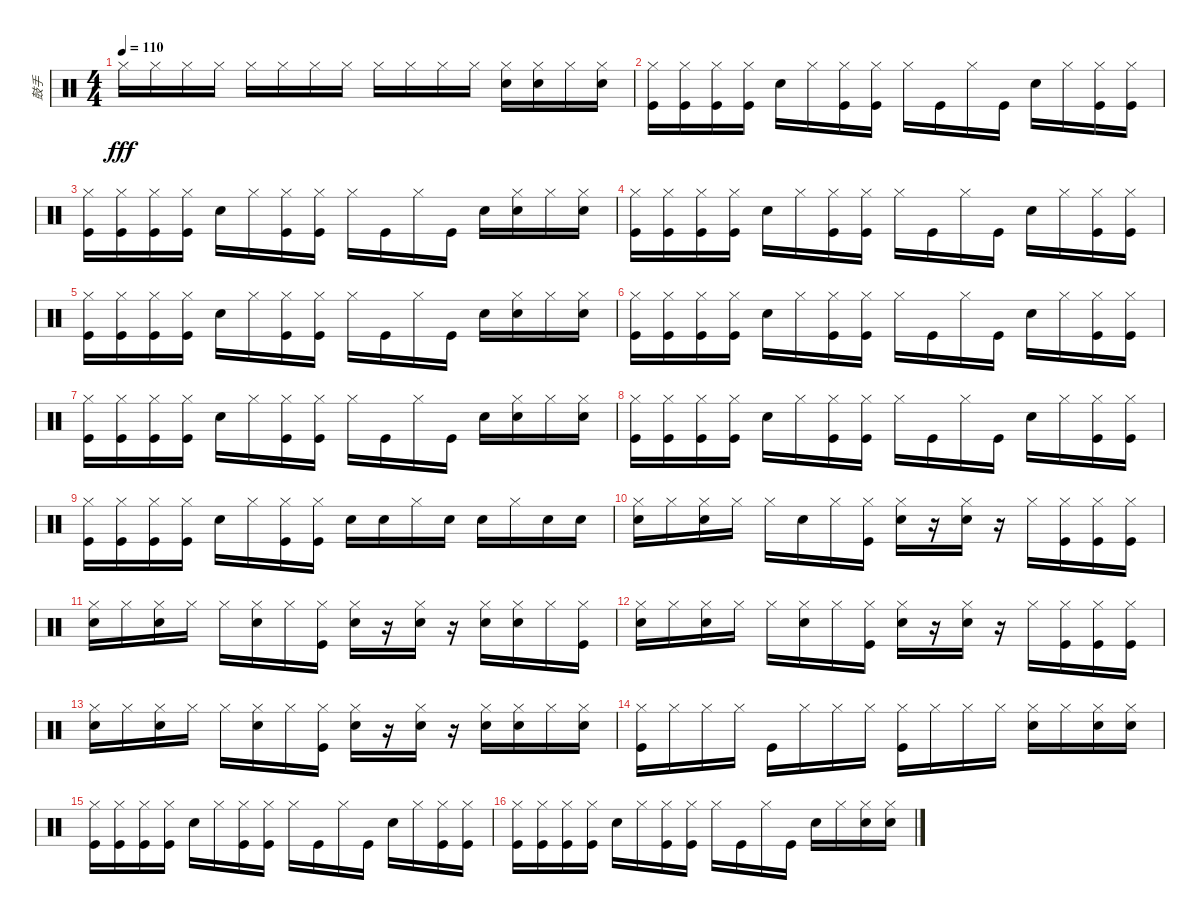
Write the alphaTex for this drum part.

\track ("鼓手" "鼓手") {instrument percussion}
\staff {score}
\articulation defaults
\ts (4 4)
\tempo 110
\clef neutral
\ks c "Hi-Hat (closed)".16{dy fff} "Hi-Hat (closed)".16 "Hi-Hat (closed)".16 "Hi-Hat (closed)".16 "Hi-Hat (closed)".16 "Hi-Hat (closed)".16 "Hi-Hat (closed)".16 "Hi-Hat (closed)".16 "Hi-Hat (closed)".16 "Hi-Hat (closed)".16 "Hi-Hat (closed)".16 "Hi-Hat (closed)".16
("Snare (hit) 2" "Hi-Hat (closed)").16 ("Snare (hit) 2" "Hi-Hat (closed)").16 "Hi-Hat (closed)".16 ("Snare (hit) 2" "Hi-Hat (closed)").16 |
("Kick (hit)" "Hi-Hat (closed)").16 ("Kick (hit)" "Hi-Hat (closed)").16 ("Kick (hit)" "Hi-Hat (closed)").16 ("Kick (hit)" "Hi-Hat (closed)").16 "Snare (hit) 2".16 "Hi-Hat (closed)".16 ("Kick (hit)" "Hi-Hat (closed)").16 ("Kick (hit)" "Hi-Hat (closed)").16 "Hi-Hat (closed)".16 "Kick (hit)".16 "Hi-Hat (closed)".16 "Kick (hit)".16 "Snare (hit) 2".16 "Hi-Hat (closed)".16 ("Kick (hit)" "Hi-Hat (closed)").16 ("Kick (hit)" "Hi-Hat (closed)").16 |
("Kick (hit)" "Hi-Hat (closed)").16 ("Kick (hit)" "Hi-Hat (closed)").16 ("Kick (hit)" "Hi-Hat (closed)").16 ("Kick (hit)" "Hi-Hat (closed)").16 "Snare (hit) 2".16 "Hi-Hat (closed)".16 ("Kick (hit)" "Hi-Hat (closed)").16 ("Kick (hit)" "Hi-Hat (closed)").16 "Hi-Hat (closed)".16 "Kick (hit)".16 "Hi-Hat (closed)".16 "Kick (hit)".16 "Snare (hit) 2".16 ("Snare (hit) 2" "Hi-Hat (closed)").16 "Hi-Hat (closed)".16 ("Snare (hit) 2" "Hi-Hat (closed)").16 |
("Kick (hit)" "Hi-Hat (closed)").16 ("Kick (hit)" "Hi-Hat (closed)").16 ("Kick (hit)" "Hi-Hat (closed)").16 ("Kick (hit)" "Hi-Hat (closed)").16 "Snare (hit) 2".16 "Hi-Hat (closed)".16 ("Kick (hit)" "Hi-Hat (closed)").16 ("Kick (hit)" "Hi-Hat (closed)").16 "Hi-Hat (closed)".16 "Kick (hit)".16 "Hi-Hat (closed)".16 "Kick (hit)".16 "Snare (hit) 2".16 "Hi-Hat (closed)".16 ("Kick (hit)" "Hi-Hat (closed)").16 ("Kick (hit)" "Hi-Hat (closed)").16 |
("Kick (hit)" "Hi-Hat (closed)").16 ("Kick (hit)" "Hi-Hat (closed)").16 ("Kick (hit)" "Hi-Hat (closed)").16 ("Kick (hit)" "Hi-Hat (closed)").16 "Snare (hit) 2".16 "Hi-Hat (closed)".16 ("Kick (hit)" "Hi-Hat (closed)").16 ("Kick (hit)" "Hi-Hat (closed)").16 "Hi-Hat (closed)".16 "Kick (hit)".16 "Hi-Hat (closed)".16 "Kick (hit)".16 "Snare (hit) 2".16 ("Snare (hit) 2" "Hi-Hat (closed)").16 "Hi-Hat (closed)".16 ("Snare (hit) 2" "Hi-Hat (closed)").16 |
("Kick (hit)" "Hi-Hat (closed)").16 ("Kick (hit)" "Hi-Hat (closed)").16 ("Kick (hit)" "Hi-Hat (closed)").16 ("Kick (hit)" "Hi-Hat (closed)").16 "Snare (hit) 2".16 "Hi-Hat (closed)".16 ("Kick (hit)" "Hi-Hat (closed)").16 ("Kick (hit)" "Hi-Hat (closed)").16 "Hi-Hat (closed)".16 "Kick (hit)".16 "Hi-Hat (closed)".16 "Kick (hit)".16 "Snare (hit) 2".16 "Hi-Hat (closed)".16 ("Kick (hit)" "Hi-Hat (closed)").16 ("Kick (hit)" "Hi-Hat (closed)").16 |
("Kick (hit)" "Hi-Hat (closed)").16 ("Kick (hit)" "Hi-Hat (closed)").16 ("Kick (hit)" "Hi-Hat (closed)").16 ("Kick (hit)" "Hi-Hat (closed)").16 "Snare (hit) 2".16 "Hi-Hat (closed)".16 ("Kick (hit)" "Hi-Hat (closed)").16 ("Kick (hit)" "Hi-Hat (closed)").16 "Hi-Hat (closed)".16 "Kick (hit)".16 "Hi-Hat (closed)".16 "Kick (hit)".16 "Snare (hit) 2".16 ("Snare (hit) 2" "Hi-Hat (closed)").16 "Hi-Hat (closed)".16 ("Snare (hit) 2" "Hi-Hat (closed)").16 |
("Kick (hit)" "Hi-Hat (closed)").16 ("Kick (hit)" "Hi-Hat (closed)").16 ("Kick (hit)" "Hi-Hat (closed)").16 ("Kick (hit)" "Hi-Hat (closed)").16 "Snare (hit) 2".16 "Hi-Hat (closed)".16 ("Kick (hit)" "Hi-Hat (closed)").16 ("Kick (hit)" "Hi-Hat (closed)").16 "Hi-Hat (closed)".16 "Kick (hit)".16 "Hi-Hat (closed)".16 "Kick (hit)".16 "Snare (hit) 2".16 "Hi-Hat (closed)".16 ("Kick (hit)" "Hi-Hat (closed)").16 ("Kick (hit)" "Hi-Hat (closed)").16 |
("Kick (hit)" "Hi-Hat (closed)").16 ("Kick (hit)" "Hi-Hat (closed)").16 ("Kick (hit)" "Hi-Hat (closed)").16 ("Kick (hit)" "Hi-Hat (closed)").16 "Snare (hit) 2".16 "Hi-Hat (closed)".16 ("Kick (hit)" "Hi-Hat (closed)").16 ("Kick (hit)" "Hi-Hat (closed)").16 "Snare (hit) 2".16 "Snare (hit) 2".16 "Hi-Hat (closed)".16 "Snare (hit) 2".16 "Snare (hit) 2".16 "Hi-Hat (closed)".16 "Snare (hit) 2".16 "Snare (hit) 2".16 |
("Snare (hit) 2" "Hi-Hat (closed)").16 "Hi-Hat (closed)".16 ("Snare (hit) 2" "Hi-Hat (closed)").16 "Hi-Hat (closed)".16 "Hi-Hat (closed)".16 "Snare (hit) 2".16 "Hi-Hat (closed)".16 ("Kick (hit)" "Hi-Hat (closed)").16 ("Snare (hit) 2" "Hi-Hat (closed)").16 r.16 ("Snare (hit) 2" "Hi-Hat (closed)").16 r.16 "Hi-Hat (closed)".16 ("Kick (hit)" "Hi-Hat (closed)").16 ("Kick (hit)" "Hi-Hat (closed)").16 ("Kick (hit)" "Hi-Hat (closed)").16 |
("Snare (hit) 2" "Hi-Hat (closed)").16 "Hi-Hat (closed)".16 ("Snare (hit) 2" "Hi-Hat (closed)").16 "Hi-Hat (closed)".16 "Hi-Hat (closed)".16 ("Snare (hit) 2" "Hi-Hat (closed)").16 "Hi-Hat (closed)".16 ("Kick (hit)" "Hi-Hat (closed)").16 ("Snare (hit) 2" "Hi-Hat (closed)").16 r.16 ("Snare (hit) 2" "Hi-Hat (closed)").16 r.16 ("Snare (hit) 2" "Hi-Hat (closed)").16 ("Snare (hit) 2" "Hi-Hat (closed)").16 "Hi-Hat (closed)".16 ("Kick (hit)" "Hi-Hat (closed)").16 |
("Snare (hit) 2" "Hi-Hat (closed)").16 "Hi-Hat (closed)".16 ("Snare (hit) 2" "Hi-Hat (closed)").16 "Hi-Hat (closed)".16 "Hi-Hat (closed)".16 ("Snare (hit) 2" "Hi-Hat (closed)").16 "Hi-Hat (closed)".16 ("Kick (hit)" "Hi-Hat (closed)").16 ("Snare (hit) 2" "Hi-Hat (closed)").16 r.16 ("Snare (hit) 2" "Hi-Hat (closed)").16 r.16 "Hi-Hat (closed)".16 ("Kick (hit)" "Hi-Hat (closed)").16 ("Kick (hit)" "Hi-Hat (closed)").16 ("Kick (hit)" "Hi-Hat (closed)").16 |
("Snare (hit) 2" "Hi-Hat (closed)").16 "Hi-Hat (closed)".16 ("Snare (hit) 2" "Hi-Hat (closed)").16 "Hi-Hat (closed)".16 "Hi-Hat (closed)".16 ("Snare (hit) 2" "Hi-Hat (closed)").16 "Hi-Hat (closed)".16 ("Kick (hit)" "Hi-Hat (closed)").16 ("Snare (hit) 2" "Hi-Hat (closed)").16 r.16 ("Snare (hit) 2" "Hi-Hat (closed)").16 r.16 ("Snare (hit) 2" "Hi-Hat (closed)").16 ("Snare (hit) 2" "Hi-Hat (closed)").16 "Hi-Hat (closed)".16 ("Snare (hit) 2" "Hi-Hat (closed)").16 |
("Kick (hit)" "Hi-Hat (closed)").16 "Hi-Hat (closed)".16 "Hi-Hat (closed)".16 "Hi-Hat (closed)".16 "Kick (hit)".16 "Hi-Hat (closed)".16 "Hi-Hat (closed)".16 "Hi-Hat (closed)".16 ("Kick (hit)" "Hi-Hat (closed)").16 "Hi-Hat (closed)".16 "Hi-Hat (closed)".16 "Hi-Hat (closed)".16 ("Snare (hit) 2" "Hi-Hat (closed)").16 "Hi-Hat (closed)".16 ("Snare (hit) 2" "Hi-Hat (closed)").16 ("Snare (hit) 2" "Hi-Hat (closed)").16 |
("Kick (hit)" "Hi-Hat (closed)").16 ("Kick (hit)" "Hi-Hat (closed)").16 ("Kick (hit)" "Hi-Hat (closed)").16 ("Kick (hit)" "Hi-Hat (closed)").16 "Snare (hit) 2".16 "Hi-Hat (closed)".16 ("Kick (hit)" "Hi-Hat (closed)").16 ("Kick (hit)" "Hi-Hat (closed)").16 "Hi-Hat (closed)".16 "Kick (hit)".16 "Hi-Hat (closed)".16 "Kick (hit)".16 "Snare (hit) 2".16 "Hi-Hat (closed)".16 ("Kick (hit)" "Hi-Hat (closed)").16 ("Kick (hit)" "Hi-Hat (closed)").16 |
("Kick (hit)" "Hi-Hat (closed)").16 ("Kick (hit)" "Hi-Hat (closed)").16 ("Kick (hit)" "Hi-Hat (closed)").16 ("Kick (hit)" "Hi-Hat (closed)").16 "Snare (hit) 2".16 "Hi-Hat (closed)".16 ("Kick (hit)" "Hi-Hat (closed)").16 ("Kick (hit)" "Hi-Hat (closed)").16 "Hi-Hat (closed)".16 "Kick (hit)".16 "Hi-Hat (closed)".16 "Kick (hit)".16 "Snare (hit) 2".16 "Hi-Hat (closed)".16 ("Snare (hit) 2" "Hi-Hat (closed)").16 ("Snare (hit) 2" "Hi-Hat (closed)").16
